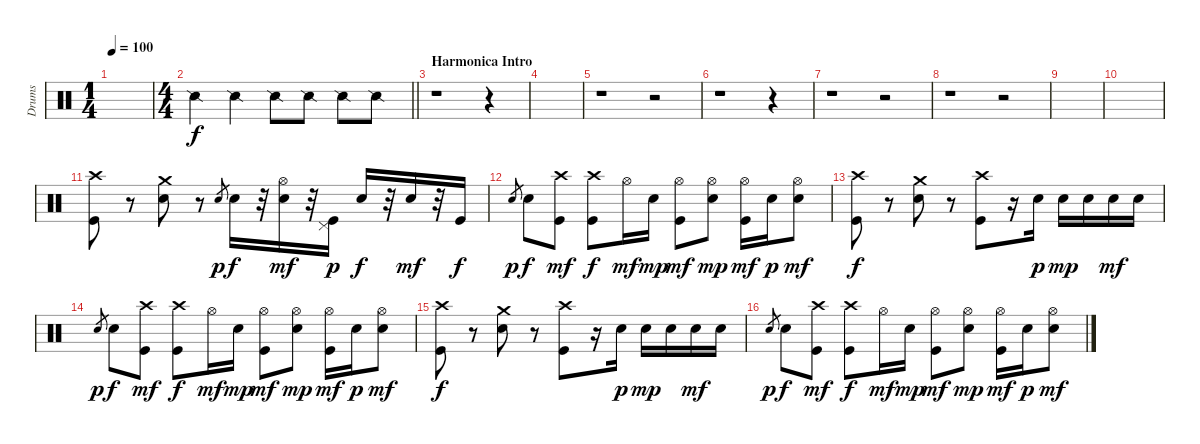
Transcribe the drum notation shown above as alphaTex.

\track ("Drums" "Drums") {instrument percussion}
\staff {score}
\articulation defaults
\ts (1 4)
\tempo 100
\clef neutral
\ks c
|
\ts (4 4)
\barLineRight lightlight "Snare (side stick) 2".4 "Snare (side stick) 2".4 "Snare (side stick) 2".8 "Snare (side stick) 2".8 "Snare (side stick) 2".8 "Snare (side stick) 2".8
|
\section ("" "Harmonica Intro")
r.1 r.4 |
|
r.1 r.2 |
r.1 r.4 |
r.1 r.2 |
r.1 r.2 |
|
|
("Crash high (hit)" "Kick (hit)").8 r.8 ("Crash medium (hit)" "Snare (hit) 2").8 r.8 "Snare (hit) 2".8{gr dy p} "Snare (hit) 2".16{dy f} r.32 ("Hi-Hat (open)" "Snare (hit) 2").16{dy mf} r.32 ("Pedal Hi-Hat (hit)" "Kick (hit)").16{dy p} "Snare (hit) 2".16{dy f} r.32 "Snare (hit) 2".16{dy mf} r.32 "Kick (hit)".16{dy f} |
"Snare (hit) 2".8{gr dy p} "Snare (hit) 2".8{dy f} ("Crash high (hit)" "Kick (hit)").8{dy mf} ("Crash high (hit)" "Kick (hit)").8{dy f} "Hi-Hat (open)".16{dy mf} "Snare (hit) 2".16{dy mp} ("Hi-Hat (open)" "Kick (hit)").8{dy mf} ("Hi-Hat (open)" "Snare (hit) 2").8{dy mp} ("Hi-Hat (open)" "Kick (hit)").16{dy mf} "Snare (hit) 2".16{dy p} ("Hi-Hat (open)" "Snare (hit) 2").8{dy mf} |
("Crash high (hit)" "Kick (hit)").8{dy f} r.8 ("Crash medium (hit)" "Snare (hit) 2").8 r.8 ("Crash high (hit)" "Kick (hit)").8 r.16 "Snare (hit) 2".16{dy p} "Snare (hit) 2".16{dy mp} "Snare (hit) 2".16 "Snare (hit) 2".16{dy mf} "Snare (hit) 2".16 |
"Snare (hit) 2".8{gr dy p} "Snare (hit) 2".8{dy f} ("Crash high (hit)" "Kick (hit)").8{dy mf} ("Crash high (hit)" "Kick (hit)").8{dy f} "Hi-Hat (open)".16{dy mf} "Snare (hit) 2".16{dy mp} ("Hi-Hat (open)" "Kick (hit)").8{dy mf} ("Hi-Hat (open)" "Snare (hit) 2").8{dy mp} ("Hi-Hat (open)" "Kick (hit)").16{dy mf} "Snare (hit) 2".16{dy p} ("Hi-Hat (open)" "Snare (hit) 2").8{dy mf} |
("Crash high (hit)" "Kick (hit)").8{dy f} r.8 ("Crash medium (hit)" "Snare (hit) 2").8 r.8 ("Crash high (hit)" "Kick (hit)").8 r.16 "Snare (hit) 2".16{dy p} "Snare (hit) 2".16{dy mp} "Snare (hit) 2".16 "Snare (hit) 2".16{dy mf} "Snare (hit) 2".16 |
"Snare (hit) 2".8{gr dy p} "Snare (hit) 2".8{dy f} ("Crash high (hit)" "Kick (hit)").8{dy mf} ("Crash high (hit)" "Kick (hit)").8{dy f} "Hi-Hat (open)".16{dy mf} "Snare (hit) 2".16{dy mp} ("Hi-Hat (open)" "Kick (hit)").8{dy mf} ("Hi-Hat (open)" "Snare (hit) 2").8{dy mp} ("Hi-Hat (open)" "Kick (hit)").16{dy mf} "Snare (hit) 2".16{dy p} ("Hi-Hat (open)" "Snare (hit) 2").8{dy mf}
